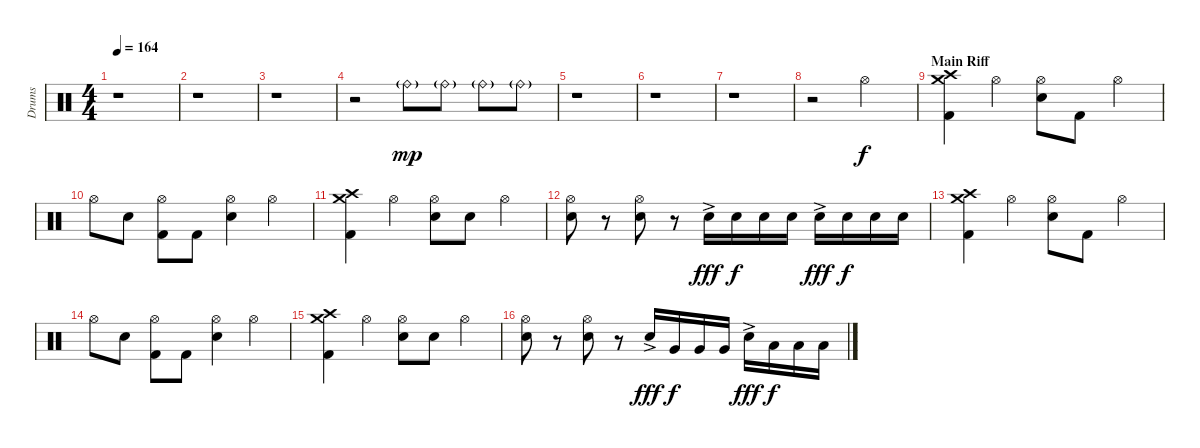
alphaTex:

\track ("Drums" "Drums") {instrument percussion}
\staff {score}
\articulation defaults
\ts (4 4)
\tempo 164
\clef neutral
\ks c
r.1{dy mp} |
r.1 |
r.1 |
r.2 "Ride (bell)"{g}.8 "Ride (bell)"{g}.8 "Ride (bell)"{g}.8 "Ride (bell)"{g}.8 |
r.1 |
r.1 |
r.1 |
r.2 "Hi-Hat (open)".2{dy f} |
\section ("" "Main Riff")
("Crash medium (hit)" "Crash high (hit)" "Kick (hit) 2").4 "Hi-Hat (open)".4 ("Hi-Hat (open)" "Electric Snare (hit)").8 "Kick (hit) 2".8 "Hi-Hat (open)".4 |
"Hi-Hat (open)".8 "Electric Snare (hit)".8 ("Hi-Hat (open)" "Kick (hit) 2").8 "Kick (hit) 2".8 ("Hi-Hat (open)" "Electric Snare (hit)").4 "Hi-Hat (open)".4 |
("Crash medium (hit)" "Crash high (hit)" "Kick (hit) 2").4 "Hi-Hat (open)".4 ("Hi-Hat (open)" "Electric Snare (hit)").8 "Electric Snare (hit)".8 "Hi-Hat (open)".4 |
("Hi-Hat (open)" "Electric Snare (hit)").8 r.8 ("Hi-Hat (open)" "Electric Snare (hit)").8 r.8 "Electric Snare (hit)"{ac}.16{dy fff} "Electric Snare (hit)".16{dy f} "Electric Snare (hit)".16 "Electric Snare (hit)".16 "Electric Snare (hit)"{ac}.16{dy fff} "Electric Snare (hit)".16{dy f} "Electric Snare (hit)".16 "Electric Snare (hit)".16 |
("Crash medium (hit)" "Crash high (hit)" "Kick (hit) 2").4 "Hi-Hat (open)".4 ("Hi-Hat (open)" "Electric Snare (hit)").8 "Kick (hit) 2".8 "Hi-Hat (open)".4 |
"Hi-Hat (open)".8 "Electric Snare (hit)".8 ("Hi-Hat (open)" "Kick (hit) 2").8 "Kick (hit) 2".8 ("Hi-Hat (open)" "Electric Snare (hit)").4 "Hi-Hat (open)".4 |
("Crash medium (hit)" "Crash high (hit)" "Kick (hit) 2").4 "Hi-Hat (open)".4 ("Hi-Hat (open)" "Electric Snare (hit)").8 "Electric Snare (hit)".8 "Hi-Hat (open)".4 |
("Hi-Hat (open)" "Electric Snare (hit)").8 r.8 ("Hi-Hat (open)" "Electric Snare (hit)").8 r.8 "Electric Snare (hit)"{ac}.16{dy fff} "Very Low Tom (hit)".16{dy f} "Very Low Tom (hit)".16 "Very Low Tom (hit)".16 "Electric Snare (hit)"{ac}.16{dy fff} "Low Floor Tom (hit)".16{dy f} "Low Floor Tom (hit)".16 "Low Floor Tom (hit)".16
